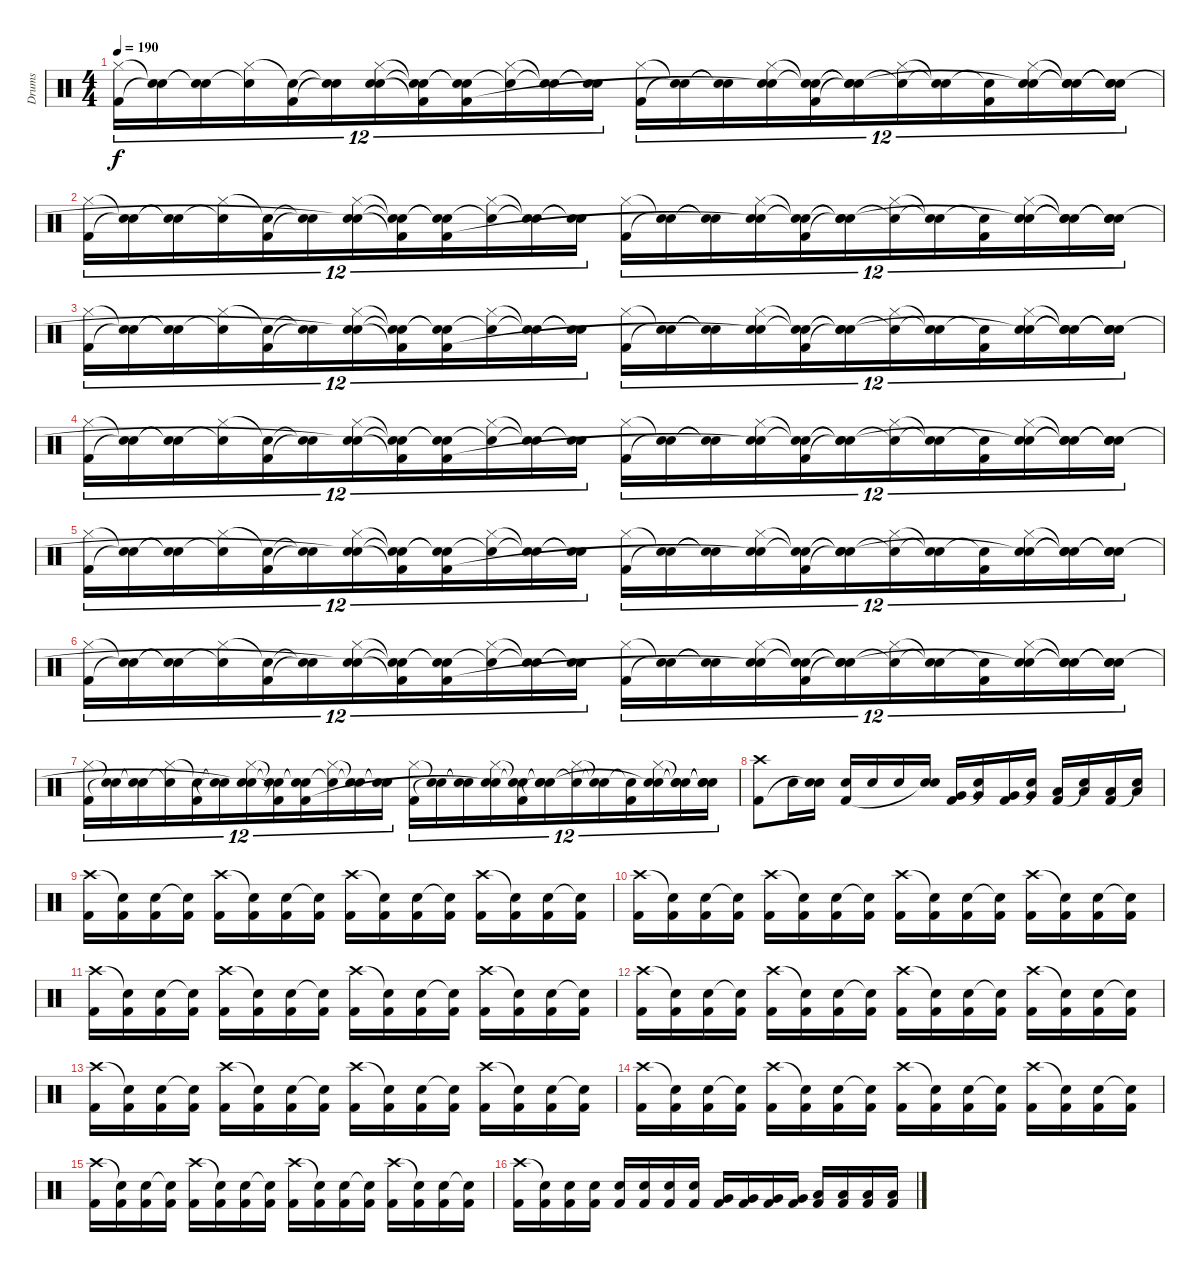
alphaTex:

\track ("Drums" "Drums") {instrument percussion}
\staff {score}
\articulation defaults
\ts (4 4)
\tempo 190
\clef neutral
\ks c
("Hi-Hat (closed)" "Kick (hit) 2").16{tu (12 8) dy f} ("Snare (hit)"{t} "Snare (hit)"{t}).16{tu (12 8)} ("Snare (hit)"{t} "Snare (hit)"{t}).16{tu (12 8)} ("Hi-Hat (closed)" "Snare (hit)"{t}).16{tu (12 8)} ("Snare (hit)"{t} "Kick (hit) 2").16{tu (12 8)} ("Snare (hit)"{t} "Snare (hit)"{t}).16{tu (12 8)} ("Hi-Hat (closed)" "Snare (hit) 2" "Snare (hit)"{t}).16{tu (12 8)} ("Snare (hit)"{t} "Snare (hit)"{t} "Kick (hit) 2"{t}).16{tu (12 8)} ("Snare (hit)"{t} "Snare (hit)"{t} "Kick (hit) 2").16{tu (12 8)} ("Hi-Hat (closed)" "Snare (hit)"{t}).16{tu (12 8)} ("Snare (hit)"{t} "Snare (hit)"{t}).16{tu (12 8)} ("Snare (hit)"{t} "Snare (hit)"{t}).16{tu (12 8)} ("Hi-Hat (closed)" "Kick (hit) 2").16{tu (12 8)} ("Snare (hit)"{t} "Snare (hit)"{t}).16{tu (12 8)} ("Snare (hit)"{t} "Snare (hit)"{t}).16{tu (12 8)} ("Hi-Hat (closed)" "Snare (hit) 2" "Snare (hit)"{t}).16{tu (12 8)} ("Snare (hit)"{t} "Snare (hit)"{t} "Kick (hit) 2").16{tu (12 8)} ("Snare (hit)"{t} "Snare (hit)"{t} "Snare (hit)"{t}).16{tu (12 8)} ("Hi-Hat (closed)" "Snare (hit)"{t}).16{tu (12 8)} ("Snare (hit)"{t} "Snare (hit)"{t}).16{tu (12 8)} ("Snare (hit)"{t} "Kick (hit) 2").16{tu (12 8)} ("Hi-Hat (closed)" "Snare (hit) 2" "Snare (hit)"{t}).16{tu (12 8)} ("Snare (hit)"{t} "Snare (hit)"{t} "Snare (hit)"{t}).16{tu (12 8)} ("Snare (hit)"{t} "Snare (hit)"{t} "Snare (hit)"{t}).16{tu (12 8)} |
("Hi-Hat (closed)" "Kick (hit) 2").16{tu (12 8)} ("Snare (hit)"{t} "Snare (hit)"{t}).16{tu (12 8)} ("Snare (hit)"{t} "Snare (hit)"{t}).16{tu (12 8)} ("Hi-Hat (closed)" "Snare (hit)"{t}).16{tu (12 8)} ("Snare (hit)"{t} "Kick (hit) 2").16{tu (12 8)} ("Snare (hit)"{t} "Snare (hit)"{t}).16{tu (12 8)} ("Hi-Hat (closed)" "Snare (hit) 2" "Snare (hit)"{t}).16{tu (12 8)} ("Snare (hit)"{t} "Snare (hit)"{t} "Kick (hit) 2"{t}).16{tu (12 8)} ("Snare (hit)"{t} "Snare (hit)"{t} "Kick (hit) 2").16{tu (12 8)} ("Hi-Hat (closed)" "Snare (hit)"{t}).16{tu (12 8)} ("Snare (hit)"{t} "Snare (hit)"{t}).16{tu (12 8)} ("Snare (hit)"{t} "Snare (hit)"{t}).16{tu (12 8)} ("Hi-Hat (closed)" "Kick (hit) 2").16{tu (12 8)} ("Snare (hit)"{t} "Snare (hit)"{t}).16{tu (12 8)} ("Snare (hit)"{t} "Snare (hit)"{t}).16{tu (12 8)} ("Hi-Hat (closed)" "Snare (hit) 2" "Snare (hit)"{t}).16{tu (12 8)} ("Snare (hit)"{t} "Snare (hit)"{t} "Kick (hit) 2").16{tu (12 8)} ("Snare (hit)"{t} "Snare (hit)"{t} "Snare (hit)"{t}).16{tu (12 8)} ("Hi-Hat (closed)" "Snare (hit)"{t}).16{tu (12 8)} ("Snare (hit)"{t} "Snare (hit)"{t}).16{tu (12 8)} ("Snare (hit)"{t} "Kick (hit) 2").16{tu (12 8)} ("Hi-Hat (closed)" "Snare (hit) 2" "Snare (hit)"{t}).16{tu (12 8)} ("Snare (hit)"{t} "Snare (hit)"{t} "Snare (hit)"{t}).16{tu (12 8)} ("Snare (hit)"{t} "Snare (hit)"{t} "Snare (hit)"{t}).16{tu (12 8)} |
("Hi-Hat (closed)" "Kick (hit) 2").16{tu (12 8)} ("Snare (hit)"{t} "Snare (hit)"{t}).16{tu (12 8)} ("Snare (hit)"{t} "Snare (hit)"{t}).16{tu (12 8)} ("Hi-Hat (closed)" "Snare (hit)"{t}).16{tu (12 8)} ("Snare (hit)"{t} "Kick (hit) 2").16{tu (12 8)} ("Snare (hit)"{t} "Snare (hit)"{t}).16{tu (12 8)} ("Hi-Hat (closed)" "Snare (hit) 2" "Snare (hit)"{t}).16{tu (12 8)} ("Snare (hit)"{t} "Snare (hit)"{t} "Kick (hit) 2"{t}).16{tu (12 8)} ("Snare (hit)"{t} "Snare (hit)"{t} "Kick (hit) 2").16{tu (12 8)} ("Hi-Hat (closed)" "Snare (hit)"{t}).16{tu (12 8)} ("Snare (hit)"{t} "Snare (hit)"{t}).16{tu (12 8)} ("Snare (hit)"{t} "Snare (hit)"{t}).16{tu (12 8)} ("Hi-Hat (closed)" "Kick (hit) 2").16{tu (12 8)} ("Snare (hit)"{t} "Snare (hit)"{t}).16{tu (12 8)} ("Snare (hit)"{t} "Snare (hit)"{t}).16{tu (12 8)} ("Hi-Hat (closed)" "Snare (hit) 2" "Snare (hit)"{t}).16{tu (12 8)} ("Snare (hit)"{t} "Snare (hit)"{t} "Kick (hit) 2").16{tu (12 8)} ("Snare (hit)"{t} "Snare (hit)"{t} "Snare (hit)"{t}).16{tu (12 8)} ("Hi-Hat (closed)" "Snare (hit)"{t}).16{tu (12 8)} ("Snare (hit)"{t} "Snare (hit)"{t}).16{tu (12 8)} ("Snare (hit)"{t} "Kick (hit) 2").16{tu (12 8)} ("Hi-Hat (closed)" "Snare (hit) 2" "Snare (hit)"{t}).16{tu (12 8)} ("Snare (hit)"{t} "Snare (hit)"{t} "Snare (hit)"{t}).16{tu (12 8)} ("Snare (hit)"{t} "Snare (hit)"{t} "Snare (hit)"{t}).16{tu (12 8)} |
("Hi-Hat (closed)" "Kick (hit) 2").16{tu (12 8)} ("Snare (hit)"{t} "Snare (hit)"{t}).16{tu (12 8)} ("Snare (hit)"{t} "Snare (hit)"{t}).16{tu (12 8)} ("Hi-Hat (closed)" "Snare (hit)"{t}).16{tu (12 8)} ("Snare (hit)"{t} "Kick (hit) 2").16{tu (12 8)} ("Snare (hit)"{t} "Snare (hit)"{t}).16{tu (12 8)} ("Hi-Hat (closed)" "Snare (hit) 2" "Snare (hit)"{t}).16{tu (12 8)} ("Snare (hit)"{t} "Snare (hit)"{t} "Kick (hit) 2"{t}).16{tu (12 8)} ("Snare (hit)"{t} "Snare (hit)"{t} "Kick (hit) 2").16{tu (12 8)} ("Hi-Hat (closed)" "Snare (hit)"{t}).16{tu (12 8)} ("Snare (hit)"{t} "Snare (hit)"{t}).16{tu (12 8)} ("Snare (hit)"{t} "Snare (hit)"{t}).16{tu (12 8)} ("Hi-Hat (closed)" "Kick (hit) 2").16{tu (12 8)} ("Snare (hit)"{t} "Snare (hit)"{t}).16{tu (12 8)} ("Snare (hit)"{t} "Snare (hit)"{t}).16{tu (12 8)} ("Hi-Hat (closed)" "Snare (hit) 2" "Snare (hit)"{t}).16{tu (12 8)} ("Snare (hit)"{t} "Snare (hit)"{t} "Kick (hit) 2").16{tu (12 8)} ("Snare (hit)"{t} "Snare (hit)"{t} "Snare (hit)"{t}).16{tu (12 8)} ("Hi-Hat (closed)" "Snare (hit)"{t}).16{tu (12 8)} ("Snare (hit)"{t} "Snare (hit)"{t}).16{tu (12 8)} ("Snare (hit)"{t} "Kick (hit) 2").16{tu (12 8)} ("Hi-Hat (closed)" "Snare (hit) 2" "Snare (hit)"{t}).16{tu (12 8)} ("Snare (hit)"{t} "Snare (hit)"{t} "Snare (hit)"{t}).16{tu (12 8)} ("Snare (hit)"{t} "Snare (hit)"{t} "Snare (hit)"{t}).16{tu (12 8)} |
("Hi-Hat (closed)" "Kick (hit) 2").16{tu (12 8)} ("Snare (hit)"{t} "Snare (hit)"{t}).16{tu (12 8)} ("Snare (hit)"{t} "Snare (hit)"{t}).16{tu (12 8)} ("Hi-Hat (closed)" "Snare (hit)"{t}).16{tu (12 8)} ("Snare (hit)"{t} "Kick (hit) 2").16{tu (12 8)} ("Snare (hit)"{t} "Snare (hit)"{t}).16{tu (12 8)} ("Hi-Hat (closed)" "Snare (hit) 2" "Snare (hit)"{t}).16{tu (12 8)} ("Snare (hit)"{t} "Snare (hit)"{t} "Kick (hit) 2"{t}).16{tu (12 8)} ("Snare (hit)"{t} "Snare (hit)"{t} "Kick (hit) 2").16{tu (12 8)} ("Hi-Hat (closed)" "Snare (hit)"{t}).16{tu (12 8)} ("Snare (hit)"{t} "Snare (hit)"{t}).16{tu (12 8)} ("Snare (hit)"{t} "Snare (hit)"{t}).16{tu (12 8)} ("Hi-Hat (closed)" "Kick (hit) 2").16{tu (12 8)} ("Snare (hit)"{t} "Snare (hit)"{t}).16{tu (12 8)} ("Snare (hit)"{t} "Snare (hit)"{t}).16{tu (12 8)} ("Hi-Hat (closed)" "Snare (hit) 2" "Snare (hit)"{t}).16{tu (12 8)} ("Snare (hit)"{t} "Snare (hit)"{t} "Kick (hit) 2").16{tu (12 8)} ("Snare (hit)"{t} "Snare (hit)"{t} "Snare (hit)"{t}).16{tu (12 8)} ("Hi-Hat (closed)" "Snare (hit)"{t}).16{tu (12 8)} ("Snare (hit)"{t} "Snare (hit)"{t}).16{tu (12 8)} ("Snare (hit)"{t} "Kick (hit) 2").16{tu (12 8)} ("Hi-Hat (closed)" "Snare (hit) 2" "Snare (hit)"{t}).16{tu (12 8)} ("Snare (hit)"{t} "Snare (hit)"{t} "Snare (hit)"{t}).16{tu (12 8)} ("Snare (hit)"{t} "Snare (hit)"{t} "Snare (hit)"{t}).16{tu (12 8)} |
("Hi-Hat (closed)" "Kick (hit) 2").16{tu (12 8)} ("Snare (hit)"{t} "Snare (hit)"{t}).16{tu (12 8)} ("Snare (hit)"{t} "Snare (hit)"{t}).16{tu (12 8)} ("Hi-Hat (closed)" "Snare (hit)"{t}).16{tu (12 8)} ("Snare (hit)"{t} "Kick (hit) 2").16{tu (12 8)} ("Snare (hit)"{t} "Snare (hit)"{t}).16{tu (12 8)} ("Hi-Hat (closed)" "Snare (hit) 2" "Snare (hit)"{t}).16{tu (12 8)} ("Snare (hit)"{t} "Snare (hit)"{t} "Kick (hit) 2"{t}).16{tu (12 8)} ("Snare (hit)"{t} "Snare (hit)"{t} "Kick (hit) 2").16{tu (12 8)} ("Hi-Hat (closed)" "Snare (hit)"{t}).16{tu (12 8)} ("Snare (hit)"{t} "Snare (hit)"{t}).16{tu (12 8)} ("Snare (hit)"{t} "Snare (hit)"{t}).16{tu (12 8)} ("Hi-Hat (closed)" "Kick (hit) 2").16{tu (12 8)} ("Snare (hit)"{t} "Snare (hit)"{t}).16{tu (12 8)} ("Snare (hit)"{t} "Snare (hit)"{t}).16{tu (12 8)} ("Hi-Hat (closed)" "Snare (hit) 2" "Snare (hit)"{t}).16{tu (12 8)} ("Snare (hit)"{t} "Snare (hit)"{t} "Kick (hit) 2").16{tu (12 8)} ("Snare (hit)"{t} "Snare (hit)"{t} "Snare (hit)"{t}).16{tu (12 8)} ("Hi-Hat (closed)" "Snare (hit)"{t}).16{tu (12 8)} ("Snare (hit)"{t} "Snare (hit)"{t}).16{tu (12 8)} ("Snare (hit)"{t} "Kick (hit) 2").16{tu (12 8)} ("Hi-Hat (closed)" "Snare (hit) 2" "Snare (hit)"{t}).16{tu (12 8)} ("Snare (hit)"{t} "Snare (hit)"{t} "Snare (hit)"{t}).16{tu (12 8)} ("Snare (hit)"{t} "Snare (hit)"{t} "Snare (hit)"{t}).16{tu (12 8)} |
("Hi-Hat (closed)" "Kick (hit) 2").16{tu (12 8)} ("Snare (hit)"{t} "Snare (hit)"{t}).16{tu (12 8)} ("Snare (hit)"{t} "Snare (hit)"{t}).16{tu (12 8)} ("Hi-Hat (closed)" "Snare (hit)"{t}).16{tu (12 8)} ("Snare (hit)"{t} "Kick (hit) 2").16{tu (12 8)} ("Snare (hit)"{t} "Snare (hit)"{t}).16{tu (12 8)} ("Hi-Hat (closed)" "Snare (hit) 2" "Snare (hit)"{t}).16{tu (12 8)} ("Snare (hit)"{t} "Snare (hit)"{t} "Kick (hit) 2"{t}).16{tu (12 8)} ("Snare (hit)"{t} "Snare (hit)"{t} "Kick (hit) 2").16{tu (12 8)} ("Hi-Hat (closed)" "Snare (hit)"{t}).16{tu (12 8)} ("Snare (hit)"{t} "Snare (hit)"{t}).16{tu (12 8)} ("Snare (hit)"{t} "Snare (hit)"{t}).16{tu (12 8)} ("Hi-Hat (closed)" "Kick (hit) 2").16{tu (12 8)} ("Snare (hit)"{t} "Snare (hit)"{t}).16{tu (12 8)} ("Snare (hit)"{t} "Snare (hit)"{t}).16{tu (12 8)} ("Hi-Hat (closed)" "Snare (hit) 2" "Snare (hit)"{t}).16{tu (12 8)} ("Snare (hit)"{t} "Snare (hit)"{t} "Kick (hit) 2").16{tu (12 8)} ("Snare (hit)"{t} "Snare (hit)"{t} "Snare (hit)"{t}).16{tu (12 8)} ("Hi-Hat (closed)" "Snare (hit)"{t}).16{tu (12 8)} ("Snare (hit)"{t} "Snare (hit)"{t}).16{tu (12 8)} ("Snare (hit)"{t} "Kick (hit) 2").16{tu (12 8)} ("Hi-Hat (closed)" "Snare (hit) 2" "Snare (hit)"{t}).16{tu (12 8)} ("Snare (hit)"{t} "Snare (hit)"{t} "Snare (hit)"{t}).16{tu (12 8)} ("Snare (hit)"{t} "Snare (hit)"{t} "Snare (hit)"{t}).16{tu (12 8)} |
("Crash high (hit)" "Kick (hit) 2").8 "Snare (hit) 2".16 ("Snare (hit) 2" "Snare (hit)"{t}).16 ("Snare (hit) 2" "Kick (hit) 2").16 "Snare (hit) 2".16 "Snare (hit) 2".16 ("Snare (hit) 2" "Snare (hit)"{t}).16 ("Very Low Tom (hit)" "Kick (hit) 2").16 ("Very Low Tom (hit)" "Snare (hit)"{t}).16 ("Very Low Tom (hit)" "Kick (hit) 2").16 ("Very Low Tom (hit)" "Snare (hit)"{t}).16 ("Low Floor Tom (hit)" "Kick (hit) 2").16 ("Low Floor Tom (hit)" "Snare (hit)"{t}).16 ("Low Floor Tom (hit)" "Kick (hit) 2").16 ("Low Floor Tom (hit)" "Snare (hit)"{t}).16 |
("Crash high (hit)" "Kick (hit) 2").16 ("Snare (hit)"{t} "Kick (hit) 2").16 ("Snare (hit) 2" "Kick (hit) 2").16 ("Snare (hit)"{t} "Kick (hit) 2").16 ("Crash high (hit)" "Kick (hit) 2").16 ("Snare (hit)"{t} "Kick (hit) 2").16 ("Snare (hit) 2" "Kick (hit) 2").16 ("Snare (hit)"{t} "Kick (hit) 2").16 ("Crash high (hit)" "Kick (hit) 2").16 ("Snare (hit)"{t} "Kick (hit) 2").16 ("Snare (hit) 2" "Kick (hit) 2").16 ("Snare (hit)"{t} "Kick (hit) 2").16 ("Crash high (hit)" "Kick (hit) 2").16 ("Snare (hit)"{t} "Kick (hit) 2").16 ("Snare (hit) 2" "Kick (hit) 2").16 ("Snare (hit)"{t} "Kick (hit) 2").16 |
("Crash high (hit)" "Kick (hit) 2").16 ("Snare (hit)"{t} "Kick (hit) 2").16 ("Snare (hit) 2" "Kick (hit) 2").16 ("Snare (hit)"{t} "Kick (hit) 2").16 ("Crash high (hit)" "Kick (hit) 2").16 ("Snare (hit)"{t} "Kick (hit) 2").16 ("Snare (hit) 2" "Kick (hit) 2").16 ("Snare (hit)"{t} "Kick (hit) 2").16 ("Crash high (hit)" "Kick (hit) 2").16 ("Snare (hit)"{t} "Kick (hit) 2").16 ("Snare (hit) 2" "Kick (hit) 2").16 ("Snare (hit)"{t} "Kick (hit) 2").16 ("Crash high (hit)" "Kick (hit) 2").16 ("Snare (hit)"{t} "Kick (hit) 2").16 ("Snare (hit) 2" "Kick (hit) 2").16 ("Snare (hit)"{t} "Kick (hit) 2").16 |
("Crash high (hit)" "Kick (hit) 2").16 ("Snare (hit)"{t} "Kick (hit) 2").16 ("Snare (hit) 2" "Kick (hit) 2").16 ("Snare (hit)"{t} "Kick (hit) 2").16 ("Crash high (hit)" "Kick (hit) 2").16 ("Snare (hit)"{t} "Kick (hit) 2").16 ("Snare (hit) 2" "Kick (hit) 2").16 ("Snare (hit)"{t} "Kick (hit) 2").16 ("Crash high (hit)" "Kick (hit) 2").16 ("Snare (hit)"{t} "Kick (hit) 2").16 ("Snare (hit) 2" "Kick (hit) 2").16 ("Snare (hit)"{t} "Kick (hit) 2").16 ("Crash high (hit)" "Kick (hit) 2").16 ("Snare (hit)"{t} "Kick (hit) 2").16 ("Snare (hit) 2" "Kick (hit) 2").16 ("Snare (hit)"{t} "Kick (hit) 2").16 |
("Crash high (hit)" "Kick (hit) 2").16 ("Snare (hit)"{t} "Kick (hit) 2").16 ("Snare (hit) 2" "Kick (hit) 2").16 ("Snare (hit)"{t} "Kick (hit) 2").16 ("Crash high (hit)" "Kick (hit) 2").16 ("Snare (hit)"{t} "Kick (hit) 2").16 ("Snare (hit) 2" "Kick (hit) 2").16 ("Snare (hit)"{t} "Kick (hit) 2").16 ("Crash high (hit)" "Kick (hit) 2").16 ("Snare (hit)"{t} "Kick (hit) 2").16 ("Snare (hit) 2" "Kick (hit) 2").16 ("Snare (hit)"{t} "Kick (hit) 2").16 ("Crash high (hit)" "Kick (hit) 2").16 ("Snare (hit)"{t} "Kick (hit) 2").16 ("Snare (hit) 2" "Kick (hit) 2").16 ("Snare (hit)"{t} "Kick (hit) 2").16 |
("Crash high (hit)" "Kick (hit) 2").16 ("Snare (hit)"{t} "Kick (hit) 2").16 ("Snare (hit) 2" "Kick (hit) 2").16 ("Snare (hit)"{t} "Kick (hit) 2").16 ("Crash high (hit)" "Kick (hit) 2").16 ("Snare (hit)"{t} "Kick (hit) 2").16 ("Snare (hit) 2" "Kick (hit) 2").16 ("Snare (hit)"{t} "Kick (hit) 2").16 ("Crash high (hit)" "Kick (hit) 2").16 ("Snare (hit)"{t} "Kick (hit) 2").16 ("Snare (hit) 2" "Kick (hit) 2").16 ("Snare (hit)"{t} "Kick (hit) 2").16 ("Crash high (hit)" "Kick (hit) 2").16 ("Snare (hit)"{t} "Kick (hit) 2").16 ("Snare (hit) 2" "Kick (hit) 2").16 ("Snare (hit)"{t} "Kick (hit) 2").16 |
("Crash high (hit)" "Kick (hit) 2").16 ("Snare (hit)"{t} "Kick (hit) 2").16 ("Snare (hit) 2" "Kick (hit) 2").16 ("Snare (hit)"{t} "Kick (hit) 2").16 ("Crash high (hit)" "Kick (hit) 2").16 ("Snare (hit)"{t} "Kick (hit) 2").16 ("Snare (hit) 2" "Kick (hit) 2").16 ("Snare (hit)"{t} "Kick (hit) 2").16 ("Crash high (hit)" "Kick (hit) 2").16 ("Snare (hit)"{t} "Kick (hit) 2").16 ("Snare (hit) 2" "Kick (hit) 2").16 ("Snare (hit)"{t} "Kick (hit) 2").16 ("Crash high (hit)" "Kick (hit) 2").16 ("Snare (hit)"{t} "Kick (hit) 2").16 ("Snare (hit) 2" "Kick (hit) 2").16 ("Snare (hit)"{t} "Kick (hit) 2").16 |
("Crash high (hit)" "Kick (hit) 2").16 ("Snare (hit)"{t} "Kick (hit) 2").16 ("Snare (hit) 2" "Kick (hit) 2").16 ("Snare (hit)"{t} "Kick (hit) 2").16 ("Crash high (hit)" "Kick (hit) 2").16 ("Snare (hit)"{t} "Kick (hit) 2").16 ("Snare (hit) 2" "Kick (hit) 2").16 ("Snare (hit)"{t} "Kick (hit) 2").16 ("Crash high (hit)" "Kick (hit) 2").16 ("Snare (hit)"{t} "Kick (hit) 2").16 ("Snare (hit) 2" "Kick (hit) 2").16 ("Snare (hit)"{t} "Kick (hit) 2").16 ("Crash high (hit)" "Kick (hit) 2").16 ("Snare (hit)"{t} "Kick (hit) 2").16 ("Snare (hit) 2" "Kick (hit) 2").16 ("Snare (hit)"{t} "Kick (hit) 2").16 |
("Crash high (hit)" "Kick (hit) 2").16 ("Snare (hit)"{t} "Kick (hit) 2").16 ("Snare (hit) 2" "Kick (hit) 2").16 ("Snare (hit) 2" "Kick (hit) 2").16 ("Snare (hit) 2" "Kick (hit) 2").16 ("Snare (hit) 2" "Kick (hit) 2").16 ("Snare (hit) 2" "Kick (hit) 2").16 ("Snare (hit) 2" "Kick (hit) 2").16 ("Very Low Tom (hit)" "Kick (hit) 2").16 ("Very Low Tom (hit)" "Kick (hit) 2").16 ("Very Low Tom (hit)" "Kick (hit) 2").16 ("Very Low Tom (hit)" "Kick (hit) 2").16 ("Low Floor Tom (hit)" "Kick (hit) 2").16 ("Low Floor Tom (hit)" "Kick (hit) 2").16 ("Low Floor Tom (hit)" "Kick (hit) 2").16 ("Low Floor Tom (hit)" "Kick (hit) 2").16
